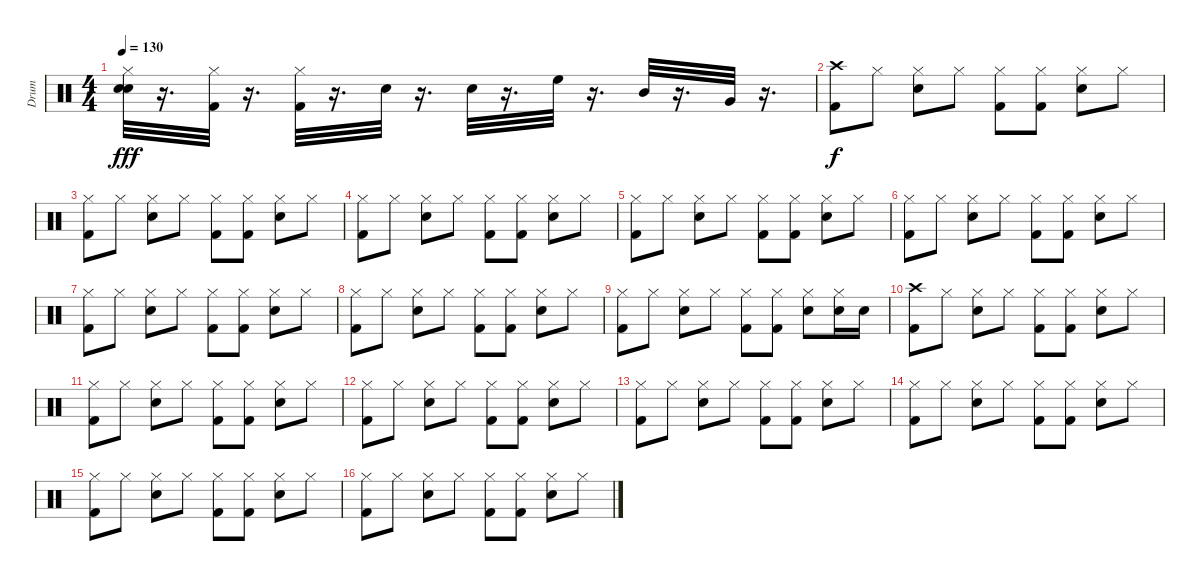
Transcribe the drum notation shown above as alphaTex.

\track ("Drum" "Drum") {instrument percussion}
\staff {score}
\articulation defaults
\ts (4 4)
\tempo 130
\clef neutral
\ks c
("Electric Snare (hit)" "Hi-Hat (closed)" "Electric Snare (hit)").32{dy fff} r.16{d} ("Kick (hit) 2" "Hi-Hat (closed)").32 r.16{d} ("Hi-Hat (closed)" "Kick (hit) 2").32 r.16{d} "Electric Snare (hit)".32 r.16{d} "Electric Snare (hit)".32 r.16{d} "High Floor Tom (hit)".32 r.16{d} "Mid Tom (hit)".32 r.16{d} "Very Low Tom (hit)".32 r.16{d} |
("Crash high (hit)" "Kick (hit) 2").8{dy f} "Hi-Hat (closed)".8 ("Hi-Hat (closed)" "Snare (hit) 2").8 "Hi-Hat (closed)".8 ("Hi-Hat (closed)" "Kick (hit) 2").8 ("Hi-Hat (closed)" "Kick (hit) 2").8 ("Hi-Hat (closed)" "Snare (hit) 2").8 "Hi-Hat (closed)".8 |
("Hi-Hat (closed)" "Kick (hit) 2").8 "Hi-Hat (closed)".8 ("Hi-Hat (closed)" "Snare (hit) 2").8 "Hi-Hat (closed)".8 ("Hi-Hat (closed)" "Kick (hit) 2").8 ("Hi-Hat (closed)" "Kick (hit) 2").8 ("Hi-Hat (closed)" "Snare (hit) 2").8 "Hi-Hat (closed)".8 |
("Hi-Hat (closed)" "Kick (hit) 2").8 "Hi-Hat (closed)".8 ("Hi-Hat (closed)" "Snare (hit) 2").8 "Hi-Hat (closed)".8 ("Hi-Hat (closed)" "Kick (hit) 2").8 ("Hi-Hat (closed)" "Kick (hit) 2").8 ("Hi-Hat (closed)" "Snare (hit) 2").8 "Hi-Hat (closed)".8 |
("Hi-Hat (closed)" "Kick (hit) 2").8 "Hi-Hat (closed)".8 ("Hi-Hat (closed)" "Snare (hit) 2").8 "Hi-Hat (closed)".8 ("Hi-Hat (closed)" "Kick (hit) 2").8 ("Hi-Hat (closed)" "Kick (hit) 2").8 ("Hi-Hat (closed)" "Snare (hit) 2").8 "Hi-Hat (closed)".8 |
("Hi-Hat (closed)" "Kick (hit) 2").8 "Hi-Hat (closed)".8 ("Hi-Hat (closed)" "Snare (hit) 2").8 "Hi-Hat (closed)".8 ("Hi-Hat (closed)" "Kick (hit) 2").8 ("Hi-Hat (closed)" "Kick (hit) 2").8 ("Hi-Hat (closed)" "Snare (hit) 2").8 "Hi-Hat (closed)".8 |
("Hi-Hat (closed)" "Kick (hit) 2").8 "Hi-Hat (closed)".8 ("Hi-Hat (closed)" "Snare (hit) 2").8 "Hi-Hat (closed)".8 ("Hi-Hat (closed)" "Kick (hit) 2").8 ("Hi-Hat (closed)" "Kick (hit) 2").8 ("Hi-Hat (closed)" "Snare (hit) 2").8 "Hi-Hat (closed)".8 |
("Hi-Hat (closed)" "Kick (hit) 2").8 "Hi-Hat (closed)".8 ("Hi-Hat (closed)" "Snare (hit) 2").8 "Hi-Hat (closed)".8 ("Hi-Hat (closed)" "Kick (hit) 2").8 ("Hi-Hat (closed)" "Kick (hit) 2").8 ("Hi-Hat (closed)" "Snare (hit) 2").8 "Hi-Hat (closed)".8 |
("Hi-Hat (closed)" "Kick (hit) 2").8 "Hi-Hat (closed)".8 ("Hi-Hat (closed)" "Snare (hit) 2").8 "Hi-Hat (closed)".8 ("Hi-Hat (closed)" "Kick (hit) 2").8 ("Hi-Hat (closed)" "Kick (hit) 2").8 ("Hi-Hat (closed)" "Snare (hit) 2").8 ("Hi-Hat (closed)" "Snare (hit) 2").16 "Snare (hit) 2".16 |
("Crash high (hit)" "Kick (hit) 2").8 "Hi-Hat (closed)".8 ("Hi-Hat (closed)" "Snare (hit) 2").8 "Hi-Hat (closed)".8 ("Hi-Hat (closed)" "Kick (hit) 2").8 ("Hi-Hat (closed)" "Kick (hit) 2").8 ("Hi-Hat (closed)" "Snare (hit) 2").8 "Hi-Hat (closed)".8 |
("Hi-Hat (closed)" "Kick (hit) 2").8 "Hi-Hat (closed)".8 ("Hi-Hat (closed)" "Snare (hit) 2").8 "Hi-Hat (closed)".8 ("Hi-Hat (closed)" "Kick (hit) 2").8 ("Hi-Hat (closed)" "Kick (hit) 2").8 ("Hi-Hat (closed)" "Snare (hit) 2").8 "Hi-Hat (closed)".8 |
("Hi-Hat (closed)" "Kick (hit) 2").8 "Hi-Hat (closed)".8 ("Hi-Hat (closed)" "Snare (hit) 2").8 "Hi-Hat (closed)".8 ("Hi-Hat (closed)" "Kick (hit) 2").8 ("Hi-Hat (closed)" "Kick (hit) 2").8 ("Hi-Hat (closed)" "Snare (hit) 2").8 "Hi-Hat (closed)".8 |
("Hi-Hat (closed)" "Kick (hit) 2").8 "Hi-Hat (closed)".8 ("Hi-Hat (closed)" "Snare (hit) 2").8 "Hi-Hat (closed)".8 ("Hi-Hat (closed)" "Kick (hit) 2").8 ("Hi-Hat (closed)" "Kick (hit) 2").8 ("Hi-Hat (closed)" "Snare (hit) 2").8 "Hi-Hat (closed)".8 |
("Hi-Hat (closed)" "Kick (hit) 2").8 "Hi-Hat (closed)".8 ("Hi-Hat (closed)" "Snare (hit) 2").8 "Hi-Hat (closed)".8 ("Hi-Hat (closed)" "Kick (hit) 2").8 ("Hi-Hat (closed)" "Kick (hit) 2").8 ("Hi-Hat (closed)" "Snare (hit) 2").8 "Hi-Hat (closed)".8 |
("Hi-Hat (closed)" "Kick (hit) 2").8 "Hi-Hat (closed)".8 ("Hi-Hat (closed)" "Snare (hit) 2").8 "Hi-Hat (closed)".8 ("Hi-Hat (closed)" "Kick (hit) 2").8 ("Hi-Hat (closed)" "Kick (hit) 2").8 ("Hi-Hat (closed)" "Snare (hit) 2").8 "Hi-Hat (closed)".8 |
("Hi-Hat (closed)" "Kick (hit) 2").8 "Hi-Hat (closed)".8 ("Hi-Hat (closed)" "Snare (hit) 2").8 "Hi-Hat (closed)".8 ("Hi-Hat (closed)" "Kick (hit) 2").8 ("Hi-Hat (closed)" "Kick (hit) 2").8 ("Hi-Hat (closed)" "Snare (hit) 2").8 "Hi-Hat (closed)".8
